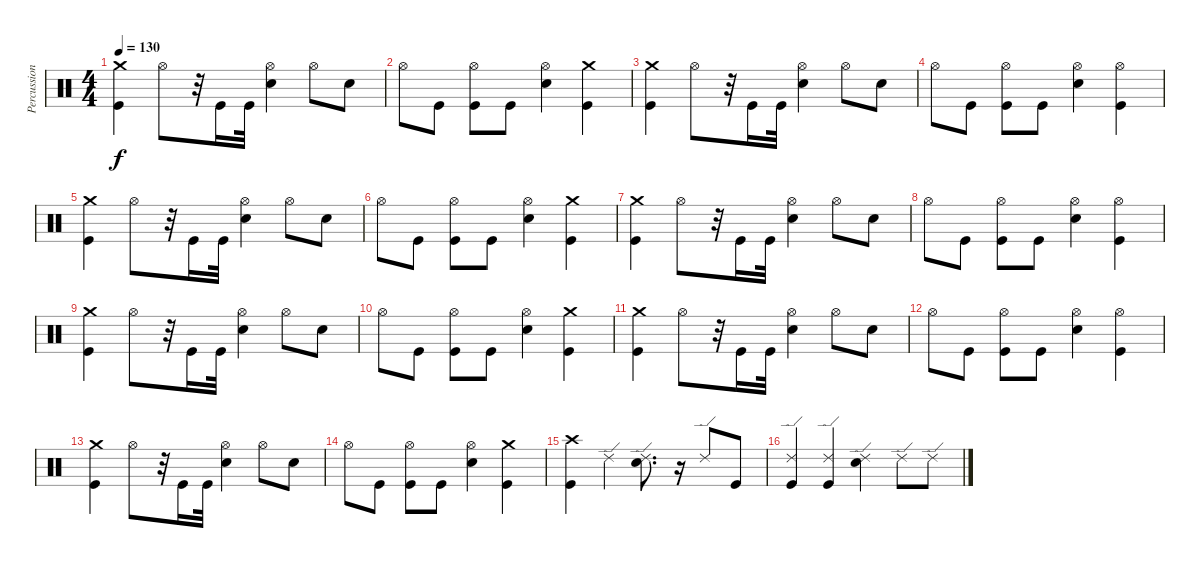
\track ("Percussion" "Percussion") {instrument percussion}
\staff {score}
\articulation defaults
\ts (4 4)
\tempo 130
\clef neutral
\ks c
("Crash medium (hit)" "Kick (hit)").4{dy f} "Hi-Hat (open)".8 r.32 "Kick (hit)".16 "Kick (hit)".32 ("Hi-Hat (open)" "Snare (hit) 2").4 "Hi-Hat (open)".8 "Snare (hit) 2".8 |
"Hi-Hat (open)".8 "Kick (hit)".8 ("Hi-Hat (open)" "Kick (hit)").8 "Kick (hit)".8 ("Hi-Hat (open)" "Snare (hit) 2").4 ("Crash medium (hit)" "Kick (hit)").4 |
("Crash medium (hit)" "Kick (hit)").4 "Hi-Hat (open)".8 r.32 "Kick (hit)".16 "Kick (hit)".32 ("Hi-Hat (open)" "Snare (hit) 2").4 "Hi-Hat (open)".8 "Snare (hit) 2".8 |
"Hi-Hat (open)".8 "Kick (hit)".8 ("Hi-Hat (open)" "Kick (hit)").8 "Kick (hit)".8 ("Hi-Hat (open)" "Snare (hit) 2").4 ("Hi-Hat (open)" "Kick (hit)").4 |
("Crash medium (hit)" "Kick (hit)").4 "Hi-Hat (open)".8 r.32 "Kick (hit)".16 "Kick (hit)".32 ("Hi-Hat (open)" "Snare (hit) 2").4 "Hi-Hat (open)".8 "Snare (hit) 2".8 |
"Hi-Hat (open)".8 "Kick (hit)".8 ("Hi-Hat (open)" "Kick (hit)").8 "Kick (hit)".8 ("Hi-Hat (open)" "Snare (hit) 2").4 ("Crash medium (hit)" "Kick (hit)").4 |
("Crash medium (hit)" "Kick (hit)").4 "Hi-Hat (open)".8 r.32 "Kick (hit)".16 "Kick (hit)".32 ("Hi-Hat (open)" "Snare (hit) 2").4 "Hi-Hat (open)".8 "Snare (hit) 2".8 |
"Hi-Hat (open)".8 "Kick (hit)".8 ("Hi-Hat (open)" "Kick (hit)").8 "Kick (hit)".8 ("Hi-Hat (open)" "Snare (hit) 2").4 ("Hi-Hat (open)" "Kick (hit)").4 |
("Crash medium (hit)" "Kick (hit)").4 "Hi-Hat (open)".8 r.32 "Kick (hit)".16 "Kick (hit)".32 ("Hi-Hat (open)" "Snare (hit) 2").4 "Hi-Hat (open)".8 "Snare (hit) 2".8 |
"Hi-Hat (open)".8 "Kick (hit)".8 ("Hi-Hat (open)" "Kick (hit)").8 "Kick (hit)".8 ("Hi-Hat (open)" "Snare (hit) 2").4 ("Crash medium (hit)" "Kick (hit)").4 |
("Crash medium (hit)" "Kick (hit)").4 "Hi-Hat (open)".8 r.32 "Kick (hit)".16 "Kick (hit)".32 ("Hi-Hat (open)" "Snare (hit) 2").4 "Hi-Hat (open)".8 "Snare (hit) 2".8 |
"Hi-Hat (open)".8 "Kick (hit)".8 ("Hi-Hat (open)" "Kick (hit)").8 "Kick (hit)".8 ("Hi-Hat (open)" "Snare (hit) 2").4 ("Hi-Hat (open)" "Kick (hit)").4 |
("Crash medium (hit)" "Kick (hit)").4 "Hi-Hat (open)".8 r.32 "Kick (hit)".16 "Kick (hit)".32 ("Hi-Hat (open)" "Snare (hit) 2").4 "Hi-Hat (open)".8 "Snare (hit) 2".8 |
"Hi-Hat (open)".8 "Kick (hit)".8 ("Hi-Hat (open)" "Kick (hit)").8 "Kick (hit)".8 ("Hi-Hat (open)" "Snare (hit) 2").4 ("Crash medium (hit)" "Kick (hit)").4 |
("Crash high (hit)" "Kick (hit)").4 "Ride (edge) 2".4 ("Ride (edge) 2" "Electric Snare (hit)").8{d} r.16 "Ride (edge) 2".8 "Kick (hit)".8 |
("Ride (edge) 2" "Kick (hit)").4 ("Ride (edge) 2" "Kick (hit)").4 ("Ride (edge) 2" "Electric Snare (hit)").4 "Ride (edge) 2".8 "Ride (edge) 2".8
